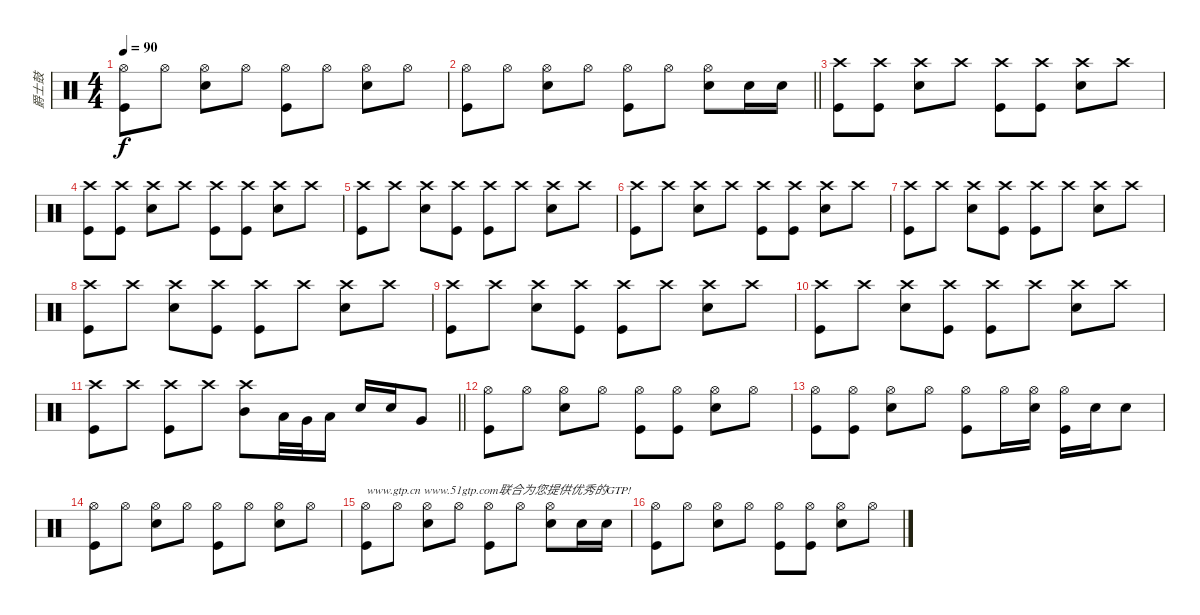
\track ("爵士鼓" "爵士鼓") {instrument percussion}
\staff {score}
\articulation defaults
\ts (4 4)
\tempo 90
\clef neutral
\ks c
("Hi-Hat (open)" "Kick (hit)").8{dy f} "Hi-Hat (open)".8 ("Hi-Hat (open)" "Snare (hit) 2").8 "Hi-Hat (open)".8 ("Hi-Hat (open)" "Kick (hit)").8 "Hi-Hat (open)".8 ("Hi-Hat (open)" "Snare (hit) 2").8 "Hi-Hat (open)".8 |
\barLineRight lightlight
("Hi-Hat (open)" "Kick (hit)").8 "Hi-Hat (open)".8 ("Hi-Hat (open)" "Snare (hit) 2").8 "Hi-Hat (open)".8 ("Hi-Hat (open)" "Kick (hit)").8 "Hi-Hat (open)".8 ("Hi-Hat (open)" "Snare (hit) 2").8 "Snare (hit) 2".16 "Snare (hit) 2".16 |
("Crash high (hit)" "Kick (hit)").8 ("Crash high (hit)" "Kick (hit)").8 ("Crash high (hit)" "Snare (hit) 2").8 "Crash high (hit)".8 ("Crash high (hit)" "Kick (hit)").8 ("Crash high (hit)" "Kick (hit)").8 ("Crash high (hit)" "Snare (hit) 2").8 "Crash high (hit)".8 |
("Crash high (hit)" "Kick (hit)").8 ("Crash high (hit)" "Kick (hit)").8 ("Crash high (hit)" "Snare (hit) 2").8 "Crash high (hit)".8 ("Crash high (hit)" "Kick (hit)").8 ("Crash high (hit)" "Kick (hit)").8 ("Crash high (hit)" "Snare (hit) 2").8 "Crash high (hit)".8 |
("Crash high (hit)" "Kick (hit)").8 "Crash high (hit)".8 ("Crash high (hit)" "Snare (hit) 2").8 ("Crash high (hit)" "Kick (hit)").8 ("Crash high (hit)" "Kick (hit)").8 "Crash high (hit)".8 ("Crash high (hit)" "Snare (hit) 2").8 "Crash high (hit)".8 |
("Crash high (hit)" "Kick (hit)").8 "Crash high (hit)".8 ("Crash high (hit)" "Snare (hit) 2").8 "Crash high (hit)".8 ("Crash high (hit)" "Kick (hit)").8 ("Crash high (hit)" "Kick (hit)").8 ("Crash high (hit)" "Snare (hit) 2").8 "Crash high (hit)".8 |
("Crash high (hit)" "Kick (hit)").8 "Crash high (hit)".8 ("Crash high (hit)" "Snare (hit) 2").8 ("Crash high (hit)" "Kick (hit)").8 ("Crash high (hit)" "Kick (hit)").8 "Crash high (hit)".8 ("Crash high (hit)" "Snare (hit) 2").8 "Crash high (hit)".8 |
("Crash high (hit)" "Kick (hit)").8 "Crash high (hit)".8 ("Crash high (hit)" "Snare (hit) 2").8 ("Crash high (hit)" "Kick (hit)").8 ("Crash high (hit)" "Kick (hit)").8 "Crash high (hit)".8 ("Crash high (hit)" "Snare (hit) 2").8 "Crash high (hit)".8 |
("Crash high (hit)" "Kick (hit)").8 "Crash high (hit)".8 ("Crash high (hit)" "Snare (hit) 2").8 ("Crash high (hit)" "Kick (hit)").8 ("Crash high (hit)" "Kick (hit)").8 "Crash high (hit)".8 ("Crash high (hit)" "Snare (hit) 2").8 "Crash high (hit)".8 |
("Crash high (hit)" "Kick (hit)").8 "Crash high (hit)".8 ("Crash high (hit)" "Snare (hit) 2").8 ("Crash high (hit)" "Kick (hit)").8 ("Crash high (hit)" "Kick (hit)").8 "Crash high (hit)".8 ("Crash high (hit)" "Snare (hit) 2").8 "Crash high (hit)".8 |
\barLineRight lightlight
("Crash high (hit)" "Kick (hit)").8 "Crash high (hit)".8 ("Crash high (hit)" "Kick (hit)").8 "Crash high (hit)".8 ("Crash high (hit)" "Mid Tom (hit)").8 "Low Tom (hit)".32 "Very Low Tom (hit)".32 "Low Floor Tom (hit)".16 "Snare (hit) 2".16 "Snare (hit) 2".16 "Very Low Tom (hit)".8 |
("Hi-Hat (open)" "Kick (hit)").8 "Hi-Hat (open)".8 ("Hi-Hat (open)" "Snare (hit) 2").8 "Hi-Hat (open)".8 ("Hi-Hat (open)" "Kick (hit)").8 ("Hi-Hat (open)" "Kick (hit)").8 ("Hi-Hat (open)" "Snare (hit) 2").8 "Hi-Hat (open)".8 |
("Hi-Hat (open)" "Kick (hit)").8 ("Hi-Hat (open)" "Kick (hit)").8 ("Hi-Hat (open)" "Snare (hit) 2").8 "Hi-Hat (open)".8 ("Hi-Hat (open)" "Kick (hit)").8 "Hi-Hat (open)".16 ("Hi-Hat (open)" "Snare (hit) 2").16 ("Hi-Hat (open)" "Kick (hit)").16 "Snare (hit) 2".16 "Snare (hit) 2".8 |
("Hi-Hat (open)" "Kick (hit)").8 "Hi-Hat (open)".8 ("Hi-Hat (open)" "Snare (hit) 2").8 "Hi-Hat (open)".8 ("Hi-Hat (open)" "Kick (hit)").8 "Hi-Hat (open)".8 ("Hi-Hat (open)" "Snare (hit) 2").8 "Hi-Hat (open)".8 |
("Hi-Hat (open)" "Kick (hit)").8{txt "www.gtp.cn www.51gtp.com联合为您提供优秀的GTP!"} "Hi-Hat (open)".8 ("Hi-Hat (open)" "Snare (hit) 2").8 "Hi-Hat (open)".8 ("Hi-Hat (open)" "Kick (hit)").8 "Hi-Hat (open)".8 ("Hi-Hat (open)" "Snare (hit) 2").8 "Snare (hit) 2".16 "Snare (hit) 2".16 |
("Hi-Hat (open)" "Kick (hit)").8 "Hi-Hat (open)".8 ("Hi-Hat (open)" "Snare (hit) 2").8 "Hi-Hat (open)".8 ("Hi-Hat (open)" "Kick (hit)").8 ("Hi-Hat (open)" "Kick (hit)").8 ("Hi-Hat (open)" "Snare (hit) 2").8 "Hi-Hat (open)".8
